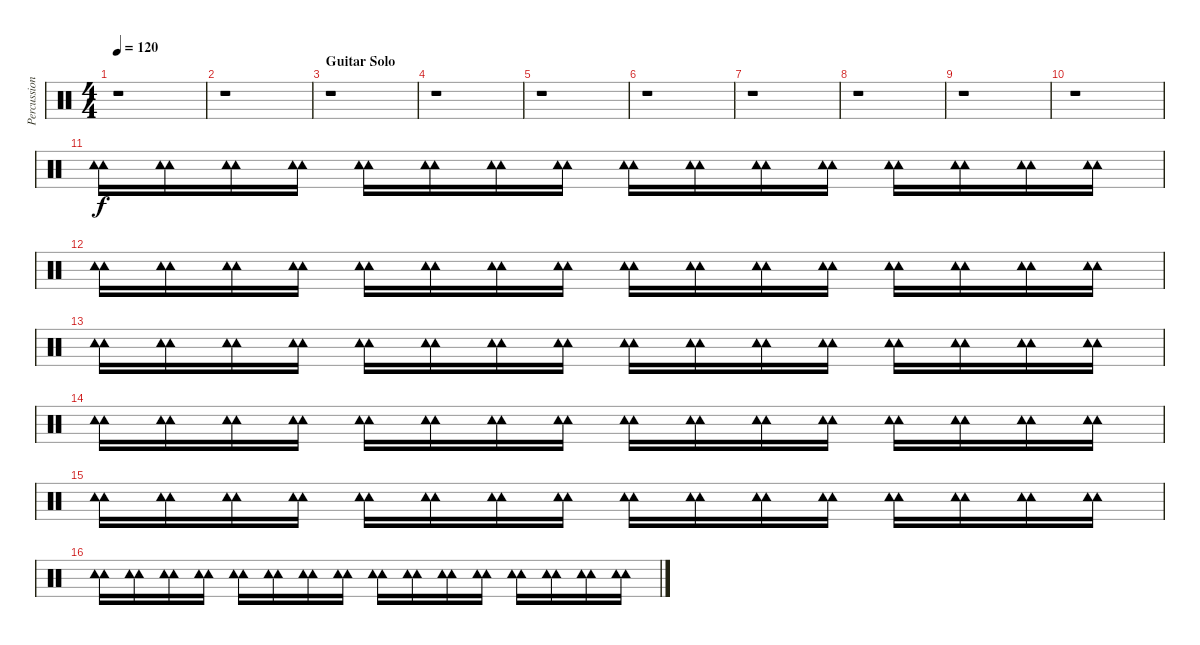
\track ("Percussions" "Percussion") {instrument percussion}
\staff {score}
\articulation defaults
\ts (4 4)
\tempo 120
\clef neutral
\ks c
r.1{dy f} |
r.1 |
\section ("" "Guitar Solo")
r.1 |
r.1 |
r.1 |
r.1 |
r.1 |
r.1 |
r.1 |
r.1 |
("Tambourine (hit)" "Tambourine (hit)").16 ("Tambourine (hit)" "Tambourine (hit)").16 ("Tambourine (hit)" "Tambourine (hit)").16 ("Tambourine (hit)" "Tambourine (hit)").16 ("Tambourine (hit)" "Tambourine (hit)").16 ("Tambourine (hit)" "Tambourine (hit)").16 ("Tambourine (hit)" "Tambourine (hit)").16 ("Tambourine (hit)" "Tambourine (hit)").16 ("Tambourine (hit)" "Tambourine (hit)").16 ("Tambourine (hit)" "Tambourine (hit)").16 ("Tambourine (hit)" "Tambourine (hit)").16 ("Tambourine (hit)" "Tambourine (hit)").16 ("Tambourine (hit)" "Tambourine (hit)").16 ("Tambourine (hit)" "Tambourine (hit)").16 ("Tambourine (hit)" "Tambourine (hit)").16 ("Tambourine (hit)" "Tambourine (hit)").16 |
("Tambourine (hit)" "Tambourine (hit)").16 ("Tambourine (hit)" "Tambourine (hit)").16 ("Tambourine (hit)" "Tambourine (hit)").16 ("Tambourine (hit)" "Tambourine (hit)").16 ("Tambourine (hit)" "Tambourine (hit)").16 ("Tambourine (hit)" "Tambourine (hit)").16 ("Tambourine (hit)" "Tambourine (hit)").16 ("Tambourine (hit)" "Tambourine (hit)").16 ("Tambourine (hit)" "Tambourine (hit)").16 ("Tambourine (hit)" "Tambourine (hit)").16 ("Tambourine (hit)" "Tambourine (hit)").16 ("Tambourine (hit)" "Tambourine (hit)").16 ("Tambourine (hit)" "Tambourine (hit)").16 ("Tambourine (hit)" "Tambourine (hit)").16 ("Tambourine (hit)" "Tambourine (hit)").16 ("Tambourine (hit)" "Tambourine (hit)").16 |
("Tambourine (hit)" "Tambourine (hit)").16 ("Tambourine (hit)" "Tambourine (hit)").16 ("Tambourine (hit)" "Tambourine (hit)").16 ("Tambourine (hit)" "Tambourine (hit)").16 ("Tambourine (hit)" "Tambourine (hit)").16 ("Tambourine (hit)" "Tambourine (hit)").16 ("Tambourine (hit)" "Tambourine (hit)").16 ("Tambourine (hit)" "Tambourine (hit)").16 ("Tambourine (hit)" "Tambourine (hit)").16 ("Tambourine (hit)" "Tambourine (hit)").16 ("Tambourine (hit)" "Tambourine (hit)").16 ("Tambourine (hit)" "Tambourine (hit)").16 ("Tambourine (hit)" "Tambourine (hit)").16 ("Tambourine (hit)" "Tambourine (hit)").16 ("Tambourine (hit)" "Tambourine (hit)").16 ("Tambourine (hit)" "Tambourine (hit)").16 |
("Tambourine (hit)" "Tambourine (hit)").16 ("Tambourine (hit)" "Tambourine (hit)").16 ("Tambourine (hit)" "Tambourine (hit)").16 ("Tambourine (hit)" "Tambourine (hit)").16 ("Tambourine (hit)" "Tambourine (hit)").16 ("Tambourine (hit)" "Tambourine (hit)").16 ("Tambourine (hit)" "Tambourine (hit)").16 ("Tambourine (hit)" "Tambourine (hit)").16 ("Tambourine (hit)" "Tambourine (hit)").16 ("Tambourine (hit)" "Tambourine (hit)").16 ("Tambourine (hit)" "Tambourine (hit)").16 ("Tambourine (hit)" "Tambourine (hit)").16 ("Tambourine (hit)" "Tambourine (hit)").16 ("Tambourine (hit)" "Tambourine (hit)").16 ("Tambourine (hit)" "Tambourine (hit)").16 ("Tambourine (hit)" "Tambourine (hit)").16 |
("Tambourine (hit)" "Tambourine (hit)").16 ("Tambourine (hit)" "Tambourine (hit)").16 ("Tambourine (hit)" "Tambourine (hit)").16 ("Tambourine (hit)" "Tambourine (hit)").16 ("Tambourine (hit)" "Tambourine (hit)").16 ("Tambourine (hit)" "Tambourine (hit)").16 ("Tambourine (hit)" "Tambourine (hit)").16 ("Tambourine (hit)" "Tambourine (hit)").16 ("Tambourine (hit)" "Tambourine (hit)").16 ("Tambourine (hit)" "Tambourine (hit)").16 ("Tambourine (hit)" "Tambourine (hit)").16 ("Tambourine (hit)" "Tambourine (hit)").16 ("Tambourine (hit)" "Tambourine (hit)").16 ("Tambourine (hit)" "Tambourine (hit)").16 ("Tambourine (hit)" "Tambourine (hit)").16 ("Tambourine (hit)" "Tambourine (hit)").16 |
("Tambourine (hit)" "Tambourine (hit)").16 ("Tambourine (hit)" "Tambourine (hit)").16 ("Tambourine (hit)" "Tambourine (hit)").16 ("Tambourine (hit)" "Tambourine (hit)").16 ("Tambourine (hit)" "Tambourine (hit)").16 ("Tambourine (hit)" "Tambourine (hit)").16 ("Tambourine (hit)" "Tambourine (hit)").16 ("Tambourine (hit)" "Tambourine (hit)").16 ("Tambourine (hit)" "Tambourine (hit)").16 ("Tambourine (hit)" "Tambourine (hit)").16 ("Tambourine (hit)" "Tambourine (hit)").16 ("Tambourine (hit)" "Tambourine (hit)").16 ("Tambourine (hit)" "Tambourine (hit)").16 ("Tambourine (hit)" "Tambourine (hit)").16 ("Tambourine (hit)" "Tambourine (hit)").16 ("Tambourine (hit)" "Tambourine (hit)").16
